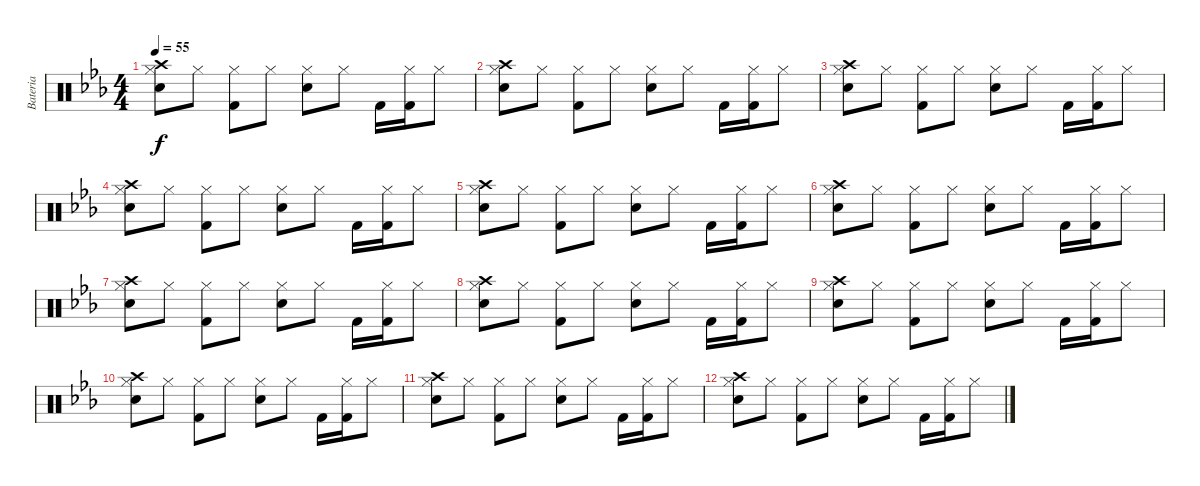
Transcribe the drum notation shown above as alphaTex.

\track ("Bateria" "Bateria") {instrument percussion}
\staff {score}
\articulation defaults
\ts (4 4)
\tempo 55
\clef neutral
\ks cminor
("Crash high (hit)" "Hi-Hat (closed)" "Snare (hit) 2").8{dy f} "Hi-Hat (closed)".8 ("Hi-Hat (closed)" "Kick (hit) 2").8 "Hi-Hat (closed)".8 ("Hi-Hat (closed)" "Snare (hit) 2").8 "Hi-Hat (closed)".8 "Kick (hit) 2".16 ("Hi-Hat (closed)" "Kick (hit) 2").16 "Hi-Hat (closed)".8 |
("Crash high (hit)" "Hi-Hat (closed)" "Snare (hit) 2").8 "Hi-Hat (closed)".8 ("Hi-Hat (closed)" "Kick (hit) 2").8 "Hi-Hat (closed)".8 ("Hi-Hat (closed)" "Snare (hit) 2").8 "Hi-Hat (closed)".8 "Kick (hit) 2".16 ("Hi-Hat (closed)" "Kick (hit) 2").16 "Hi-Hat (closed)".8 |
("Crash high (hit)" "Hi-Hat (closed)" "Snare (hit) 2").8 "Hi-Hat (closed)".8 ("Hi-Hat (closed)" "Kick (hit) 2").8 "Hi-Hat (closed)".8 ("Hi-Hat (closed)" "Snare (hit) 2").8 "Hi-Hat (closed)".8 "Kick (hit) 2".16 ("Hi-Hat (closed)" "Kick (hit) 2").16 "Hi-Hat (closed)".8 |
("Crash high (hit)" "Hi-Hat (closed)" "Snare (hit) 2").8 "Hi-Hat (closed)".8 ("Hi-Hat (closed)" "Kick (hit) 2").8 "Hi-Hat (closed)".8 ("Hi-Hat (closed)" "Snare (hit) 2").8 "Hi-Hat (closed)".8 "Kick (hit) 2".16 ("Hi-Hat (closed)" "Kick (hit) 2").16 "Hi-Hat (closed)".8 |
("Crash high (hit)" "Hi-Hat (closed)" "Snare (hit) 2").8 "Hi-Hat (closed)".8 ("Hi-Hat (closed)" "Kick (hit) 2").8 "Hi-Hat (closed)".8 ("Hi-Hat (closed)" "Snare (hit) 2").8 "Hi-Hat (closed)".8 "Kick (hit) 2".16 ("Hi-Hat (closed)" "Kick (hit) 2").16 "Hi-Hat (closed)".8 |
("Crash high (hit)" "Hi-Hat (closed)" "Snare (hit) 2").8 "Hi-Hat (closed)".8 ("Hi-Hat (closed)" "Kick (hit) 2").8 "Hi-Hat (closed)".8 ("Hi-Hat (closed)" "Snare (hit) 2").8 "Hi-Hat (closed)".8 "Kick (hit) 2".16 ("Hi-Hat (closed)" "Kick (hit) 2").16 "Hi-Hat (closed)".8 |
("Crash high (hit)" "Hi-Hat (closed)" "Snare (hit) 2").8 "Hi-Hat (closed)".8 ("Hi-Hat (closed)" "Kick (hit) 2").8 "Hi-Hat (closed)".8 ("Hi-Hat (closed)" "Snare (hit) 2").8 "Hi-Hat (closed)".8 "Kick (hit) 2".16 ("Hi-Hat (closed)" "Kick (hit) 2").16 "Hi-Hat (closed)".8 |
("Crash high (hit)" "Hi-Hat (closed)" "Snare (hit) 2").8 "Hi-Hat (closed)".8 ("Hi-Hat (closed)" "Kick (hit) 2").8 "Hi-Hat (closed)".8 ("Hi-Hat (closed)" "Snare (hit) 2").8 "Hi-Hat (closed)".8 "Kick (hit) 2".16 ("Hi-Hat (closed)" "Kick (hit) 2").16 "Hi-Hat (closed)".8 |
("Crash high (hit)" "Hi-Hat (closed)" "Snare (hit) 2").8 "Hi-Hat (closed)".8 ("Hi-Hat (closed)" "Kick (hit) 2").8 "Hi-Hat (closed)".8 ("Hi-Hat (closed)" "Snare (hit) 2").8 "Hi-Hat (closed)".8 "Kick (hit) 2".16 ("Hi-Hat (closed)" "Kick (hit) 2").16 "Hi-Hat (closed)".8 |
("Crash high (hit)" "Hi-Hat (closed)" "Snare (hit) 2").8 "Hi-Hat (closed)".8 ("Hi-Hat (closed)" "Kick (hit) 2").8 "Hi-Hat (closed)".8 ("Hi-Hat (closed)" "Snare (hit) 2").8 "Hi-Hat (closed)".8 "Kick (hit) 2".16 ("Hi-Hat (closed)" "Kick (hit) 2").16 "Hi-Hat (closed)".8 |
("Crash high (hit)" "Hi-Hat (closed)" "Snare (hit) 2").8 "Hi-Hat (closed)".8 ("Hi-Hat (closed)" "Kick (hit) 2").8 "Hi-Hat (closed)".8 ("Hi-Hat (closed)" "Snare (hit) 2").8 "Hi-Hat (closed)".8 "Kick (hit) 2".16 ("Hi-Hat (closed)" "Kick (hit) 2").16 "Hi-Hat (closed)".8 |
("Crash high (hit)" "Hi-Hat (closed)" "Snare (hit) 2").8 "Hi-Hat (closed)".8 ("Hi-Hat (closed)" "Kick (hit) 2").8 "Hi-Hat (closed)".8 ("Hi-Hat (closed)" "Snare (hit) 2").8 "Hi-Hat (closed)".8 "Kick (hit) 2".16 ("Hi-Hat (closed)" "Kick (hit) 2").16 "Hi-Hat (closed)".8
